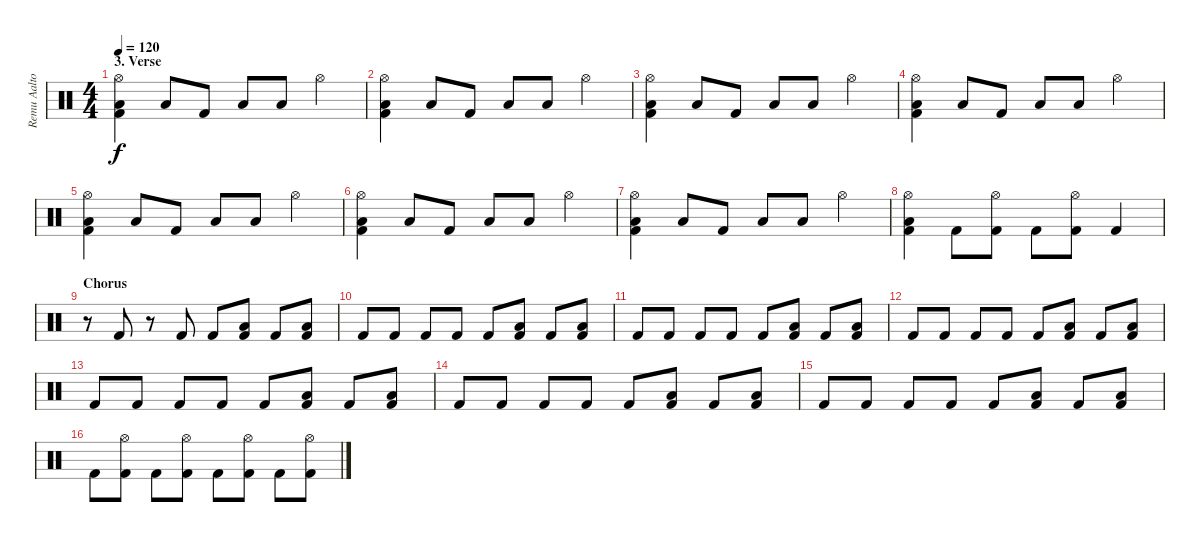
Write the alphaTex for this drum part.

\track ("Remu Aaltonen" "Remu Aalto") {instrument percussion}
\staff {score}
\articulation defaults
\ts (4 4)
\section ("" "3. Verse")
\tempo 120
\clef neutral
\ks c
("Hi-Hat (open)" "Kick (hit) 2" "Low Tom (hit)").4{dy f} "Low Tom (hit)".8 "Kick (hit) 2".8 "Low Tom (hit)".8 "Low Tom (hit)".8 "Hi-Hat (open)".4 |
("Hi-Hat (open)" "Kick (hit) 2" "Low Tom (hit)").4 "Low Tom (hit)".8 "Kick (hit) 2".8 "Low Tom (hit)".8 "Low Tom (hit)".8 "Hi-Hat (open)".4 |
("Hi-Hat (open)" "Kick (hit) 2" "Low Tom (hit)").4 "Low Tom (hit)".8 "Kick (hit) 2".8 "Low Tom (hit)".8 "Low Tom (hit)".8 "Hi-Hat (open)".4 |
("Hi-Hat (open)" "Kick (hit) 2" "Low Tom (hit)").4 "Low Tom (hit)".8 "Kick (hit) 2".8 "Low Tom (hit)".8 "Low Tom (hit)".8 "Hi-Hat (open)".4 |
("Hi-Hat (open)" "Kick (hit) 2" "Low Tom (hit)").4 "Low Tom (hit)".8 "Kick (hit) 2".8 "Low Tom (hit)".8 "Low Tom (hit)".8 "Hi-Hat (open)".4 |
("Hi-Hat (open)" "Kick (hit) 2" "Low Tom (hit)").4 "Low Tom (hit)".8 "Kick (hit) 2".8 "Low Tom (hit)".8 "Low Tom (hit)".8 "Hi-Hat (open)".4 |
("Hi-Hat (open)" "Kick (hit) 2" "Low Tom (hit)").4 "Low Tom (hit)".8 "Kick (hit) 2".8 "Low Tom (hit)".8 "Low Tom (hit)".8 "Hi-Hat (open)".4 |
("Hi-Hat (open)" "Kick (hit) 2" "Low Tom (hit)").4 "Kick (hit) 2".8 ("Kick (hit) 2" "Hi-Hat (open)").8 "Kick (hit) 2".8 ("Kick (hit) 2" "Hi-Hat (open)").8 "Kick (hit) 2".4 |
\section ("" "Chorus")
r.8 "Kick (hit) 2".8 r.8 "Kick (hit) 2".8 "Kick (hit) 2".8 ("Low Tom (hit)" "Kick (hit) 2").8 "Kick (hit) 2".8 ("Low Tom (hit)" "Kick (hit) 2").8 |
"Kick (hit) 2".8 "Kick (hit) 2".8 "Kick (hit) 2".8 "Kick (hit) 2".8 "Kick (hit) 2".8 ("Low Tom (hit)" "Kick (hit) 2").8 "Kick (hit) 2".8 ("Low Tom (hit)" "Kick (hit) 2").8 |
"Kick (hit) 2".8 "Kick (hit) 2".8 "Kick (hit) 2".8 "Kick (hit) 2".8 "Kick (hit) 2".8 ("Low Tom (hit)" "Kick (hit) 2").8 "Kick (hit) 2".8 ("Low Tom (hit)" "Kick (hit) 2").8 |
"Kick (hit) 2".8 "Kick (hit) 2".8 "Kick (hit) 2".8 "Kick (hit) 2".8 "Kick (hit) 2".8 ("Low Tom (hit)" "Kick (hit) 2").8 "Kick (hit) 2".8 ("Low Tom (hit)" "Kick (hit) 2").8 |
"Kick (hit) 2".8 "Kick (hit) 2".8 "Kick (hit) 2".8 "Kick (hit) 2".8 "Kick (hit) 2".8 ("Low Tom (hit)" "Kick (hit) 2").8 "Kick (hit) 2".8 ("Low Tom (hit)" "Kick (hit) 2").8 |
"Kick (hit) 2".8 "Kick (hit) 2".8 "Kick (hit) 2".8 "Kick (hit) 2".8 "Kick (hit) 2".8 ("Low Tom (hit)" "Kick (hit) 2").8 "Kick (hit) 2".8 ("Low Tom (hit)" "Kick (hit) 2").8 |
"Kick (hit) 2".8 "Kick (hit) 2".8 "Kick (hit) 2".8 "Kick (hit) 2".8 "Kick (hit) 2".8 ("Low Tom (hit)" "Kick (hit) 2").8 "Kick (hit) 2".8 ("Low Tom (hit)" "Kick (hit) 2").8 |
"Kick (hit) 2".8 ("Kick (hit) 2" "Hi-Hat (open)").8 "Kick (hit) 2".8 ("Kick (hit) 2" "Hi-Hat (open)").8 "Kick (hit) 2".8 ("Kick (hit) 2" "Hi-Hat (open)").8 "Kick (hit) 2".8 ("Kick (hit) 2" "Hi-Hat (open)").8
